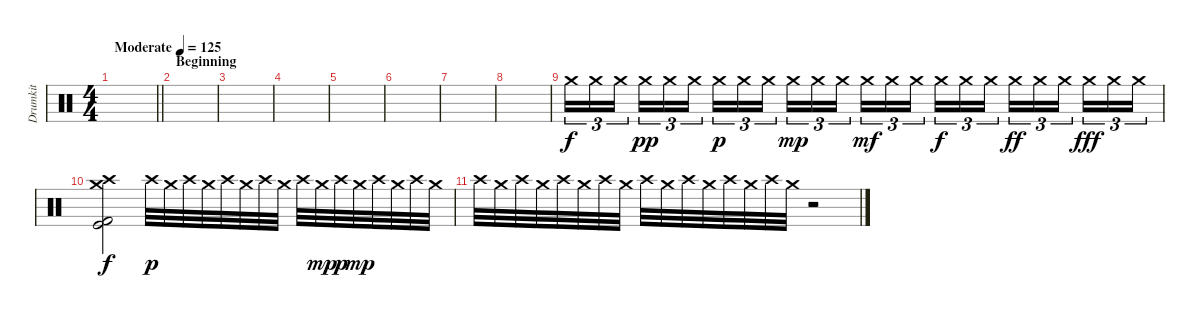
\track ("Drumkit" "Drumkit") {instrument percussion}
\staff {score}
\articulation defaults
\ts (4 4)
\tempo (125 "Moderate")
\clef neutral
\barLineRight lightlight
\ks c
|
\section ("" "Beginning")
|
|
|
|
|
|
|
"Crash medium (hit)".16{tu (3 2)} "Crash medium (hit)".16{tu (3 2)} "Crash medium (hit)".16{tu (3 2) beam splitsecondary} "Crash medium (hit)".16{tu (3 2) dy pp} "Crash medium (hit)".16{tu (3 2)} "Crash medium (hit)".16{tu (3 2)} "Crash medium (hit)".16{tu (3 2) dy p} "Crash medium (hit)".16{tu (3 2)} "Crash medium (hit)".16{tu (3 2) beam splitsecondary} "Crash medium (hit)".16{tu (3 2) dy mp} "Crash medium (hit)".16{tu (3 2)} "Crash medium (hit)".16{tu (3 2)} "Crash medium (hit)".16{tu (3 2) dy mf} "Crash medium (hit)".16{tu (3 2)} "Crash medium (hit)".16{tu (3 2) beam splitsecondary} "Crash medium (hit)".16{tu (3 2) dy f} "Crash medium (hit)".16{tu (3 2)} "Crash medium (hit)".16{tu (3 2)} "Crash medium (hit)".16{tu (3 2) dy ff} "Crash medium (hit)".16{tu (3 2)} "Crash medium (hit)".16{tu (3 2) beam splitsecondary} "Crash medium (hit)".16{tu (3 2) dy fff} "Crash medium (hit)".16{tu (3 2)} "Crash medium (hit)".16{tu (3 2)} |
("Crash high (hit)" "Crash medium (hit)" "Kick (hit)" "Kick (hit) 2").2{dy f} "Crash high (hit)".32{dy p} "Crash medium (hit)".32 "Crash high (hit)".32 "Crash medium (hit)".32 "Crash high (hit)".32 "Crash medium (hit)".32 "Crash high (hit)".32 "Crash medium (hit)".32 "Crash high (hit)".32 "Crash medium (hit)".32{dy mp} "Crash high (hit)".32{dy p} "Crash medium (hit)".32{dy mp} "Crash high (hit)".32 "Crash medium (hit)".32 "Crash high (hit)".32 "Crash medium (hit)".32 |
"Crash high (hit)".32 "Crash medium (hit)".32 "Crash high (hit)".32 "Crash medium (hit)".32 "Crash high (hit)".32 "Crash medium (hit)".32 "Crash high (hit)".32 "Crash medium (hit)".32 "Crash high (hit)".32 "Crash medium (hit)".32 "Crash high (hit)".32 "Crash medium (hit)".32 "Crash high (hit)".32 "Crash medium (hit)".32 "Crash high (hit)".32 "Crash medium (hit)".32 r.2
